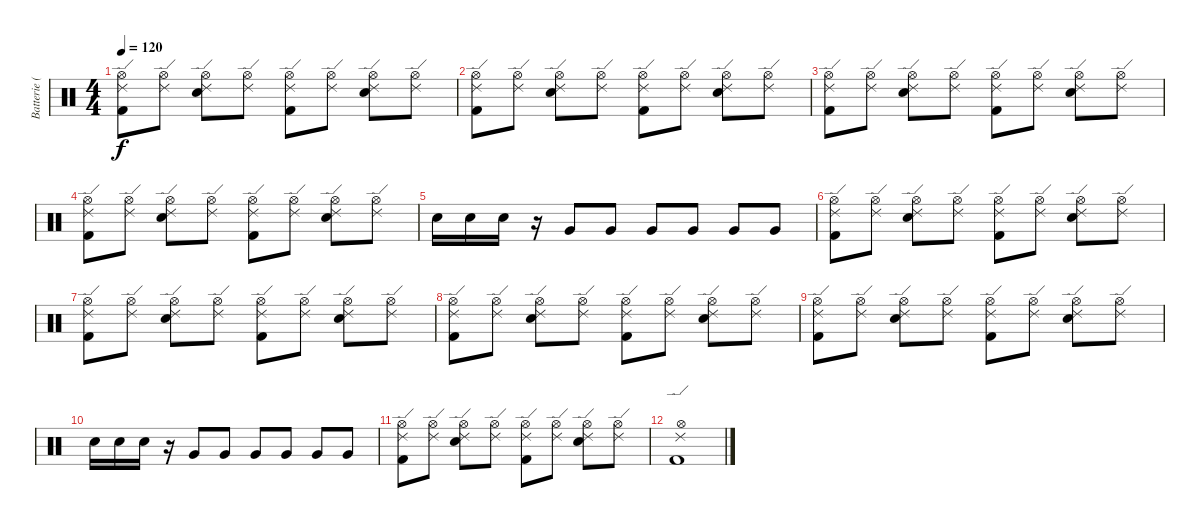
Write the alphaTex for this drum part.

\track ("Batterie (David Lovering)" "Batterie (") {instrument percussion}
\staff {score}
\articulation defaults
\ts (4 4)
\tempo 120
\clef neutral
\ks c
("Ride (edge) 2" "Hi-Hat (open)" "Kick (hit) 2").8{dy f} ("Ride (edge) 2" "Hi-Hat (open)").8 ("Ride (edge) 2" "Hi-Hat (open)" "Electric Snare (hit)").8 ("Ride (edge) 2" "Hi-Hat (open)").8 ("Ride (edge) 2" "Hi-Hat (open)" "Kick (hit) 2").8 ("Ride (edge) 2" "Hi-Hat (open)").8 ("Ride (edge) 2" "Hi-Hat (open)" "Electric Snare (hit)").8 ("Ride (edge) 2" "Hi-Hat (open)").8 |
("Ride (edge) 2" "Hi-Hat (open)" "Kick (hit) 2").8 ("Ride (edge) 2" "Hi-Hat (open)").8 ("Ride (edge) 2" "Hi-Hat (open)" "Electric Snare (hit)").8 ("Ride (edge) 2" "Hi-Hat (open)").8 ("Ride (edge) 2" "Hi-Hat (open)" "Kick (hit) 2").8 ("Ride (edge) 2" "Hi-Hat (open)").8 ("Ride (edge) 2" "Hi-Hat (open)" "Electric Snare (hit)").8 ("Ride (edge) 2" "Hi-Hat (open)").8 |
("Ride (edge) 2" "Hi-Hat (open)" "Kick (hit) 2").8 ("Ride (edge) 2" "Hi-Hat (open)").8 ("Ride (edge) 2" "Hi-Hat (open)" "Electric Snare (hit)").8 ("Ride (edge) 2" "Hi-Hat (open)").8 ("Ride (edge) 2" "Hi-Hat (open)" "Kick (hit) 2").8 ("Ride (edge) 2" "Hi-Hat (open)").8 ("Ride (edge) 2" "Hi-Hat (open)" "Electric Snare (hit)").8 ("Ride (edge) 2" "Hi-Hat (open)").8 |
("Ride (edge) 2" "Hi-Hat (open)" "Kick (hit) 2").8 ("Ride (edge) 2" "Hi-Hat (open)").8 ("Ride (edge) 2" "Hi-Hat (open)" "Electric Snare (hit)").8 ("Ride (edge) 2" "Hi-Hat (open)").8 ("Ride (edge) 2" "Hi-Hat (open)" "Kick (hit) 2").8 ("Ride (edge) 2" "Hi-Hat (open)").8 ("Ride (edge) 2" "Hi-Hat (open)" "Electric Snare (hit)").8 ("Ride (edge) 2" "Hi-Hat (open)").8 |
"Snare (hit) 2".16 "Snare (hit) 2".16 "Snare (hit) 2".16 r.16 "Very Low Tom (hit)".8 "Very Low Tom (hit)".8 "Very Low Tom (hit)".8 "Very Low Tom (hit)".8 "Very Low Tom (hit)".8 "Very Low Tom (hit)".8 |
("Ride (edge) 2" "Hi-Hat (open)" "Kick (hit) 2").8 ("Ride (edge) 2" "Hi-Hat (open)").8 ("Ride (edge) 2" "Hi-Hat (open)" "Electric Snare (hit)").8 ("Ride (edge) 2" "Hi-Hat (open)").8 ("Ride (edge) 2" "Hi-Hat (open)" "Kick (hit) 2").8 ("Ride (edge) 2" "Hi-Hat (open)").8 ("Ride (edge) 2" "Hi-Hat (open)" "Electric Snare (hit)").8 ("Ride (edge) 2" "Hi-Hat (open)").8 |
("Ride (edge) 2" "Hi-Hat (open)" "Kick (hit) 2").8 ("Ride (edge) 2" "Hi-Hat (open)").8 ("Ride (edge) 2" "Hi-Hat (open)" "Electric Snare (hit)").8 ("Ride (edge) 2" "Hi-Hat (open)").8 ("Ride (edge) 2" "Hi-Hat (open)" "Kick (hit) 2").8 ("Ride (edge) 2" "Hi-Hat (open)").8 ("Ride (edge) 2" "Hi-Hat (open)" "Electric Snare (hit)").8 ("Ride (edge) 2" "Hi-Hat (open)").8 |
("Ride (edge) 2" "Hi-Hat (open)" "Kick (hit) 2").8 ("Ride (edge) 2" "Hi-Hat (open)").8 ("Ride (edge) 2" "Hi-Hat (open)" "Electric Snare (hit)").8 ("Ride (edge) 2" "Hi-Hat (open)").8 ("Ride (edge) 2" "Hi-Hat (open)" "Kick (hit) 2").8 ("Ride (edge) 2" "Hi-Hat (open)").8 ("Ride (edge) 2" "Hi-Hat (open)" "Electric Snare (hit)").8 ("Ride (edge) 2" "Hi-Hat (open)").8 |
("Ride (edge) 2" "Hi-Hat (open)" "Kick (hit) 2").8 ("Ride (edge) 2" "Hi-Hat (open)").8 ("Ride (edge) 2" "Hi-Hat (open)" "Electric Snare (hit)").8 ("Ride (edge) 2" "Hi-Hat (open)").8 ("Ride (edge) 2" "Hi-Hat (open)" "Kick (hit) 2").8 ("Ride (edge) 2" "Hi-Hat (open)").8 ("Ride (edge) 2" "Hi-Hat (open)" "Electric Snare (hit)").8 ("Ride (edge) 2" "Hi-Hat (open)").8 |
"Snare (hit) 2".16 "Snare (hit) 2".16 "Snare (hit) 2".16 r.16 "Very Low Tom (hit)".8 "Very Low Tom (hit)".8 "Very Low Tom (hit)".8 "Very Low Tom (hit)".8 "Very Low Tom (hit)".8 "Very Low Tom (hit)".8 |
("Ride (edge) 2" "Hi-Hat (open)" "Kick (hit) 2").8 ("Ride (edge) 2" "Hi-Hat (open)").8 ("Ride (edge) 2" "Hi-Hat (open)" "Electric Snare (hit)").8 ("Ride (edge) 2" "Hi-Hat (open)").8 ("Ride (edge) 2" "Hi-Hat (open)" "Kick (hit) 2").8 ("Ride (edge) 2" "Hi-Hat (open)").8 ("Ride (edge) 2" "Hi-Hat (open)" "Electric Snare (hit)").8 ("Ride (edge) 2" "Hi-Hat (open)").8 |
("Ride (edge) 2" "Hi-Hat (open)" "Kick (hit) 2").1
